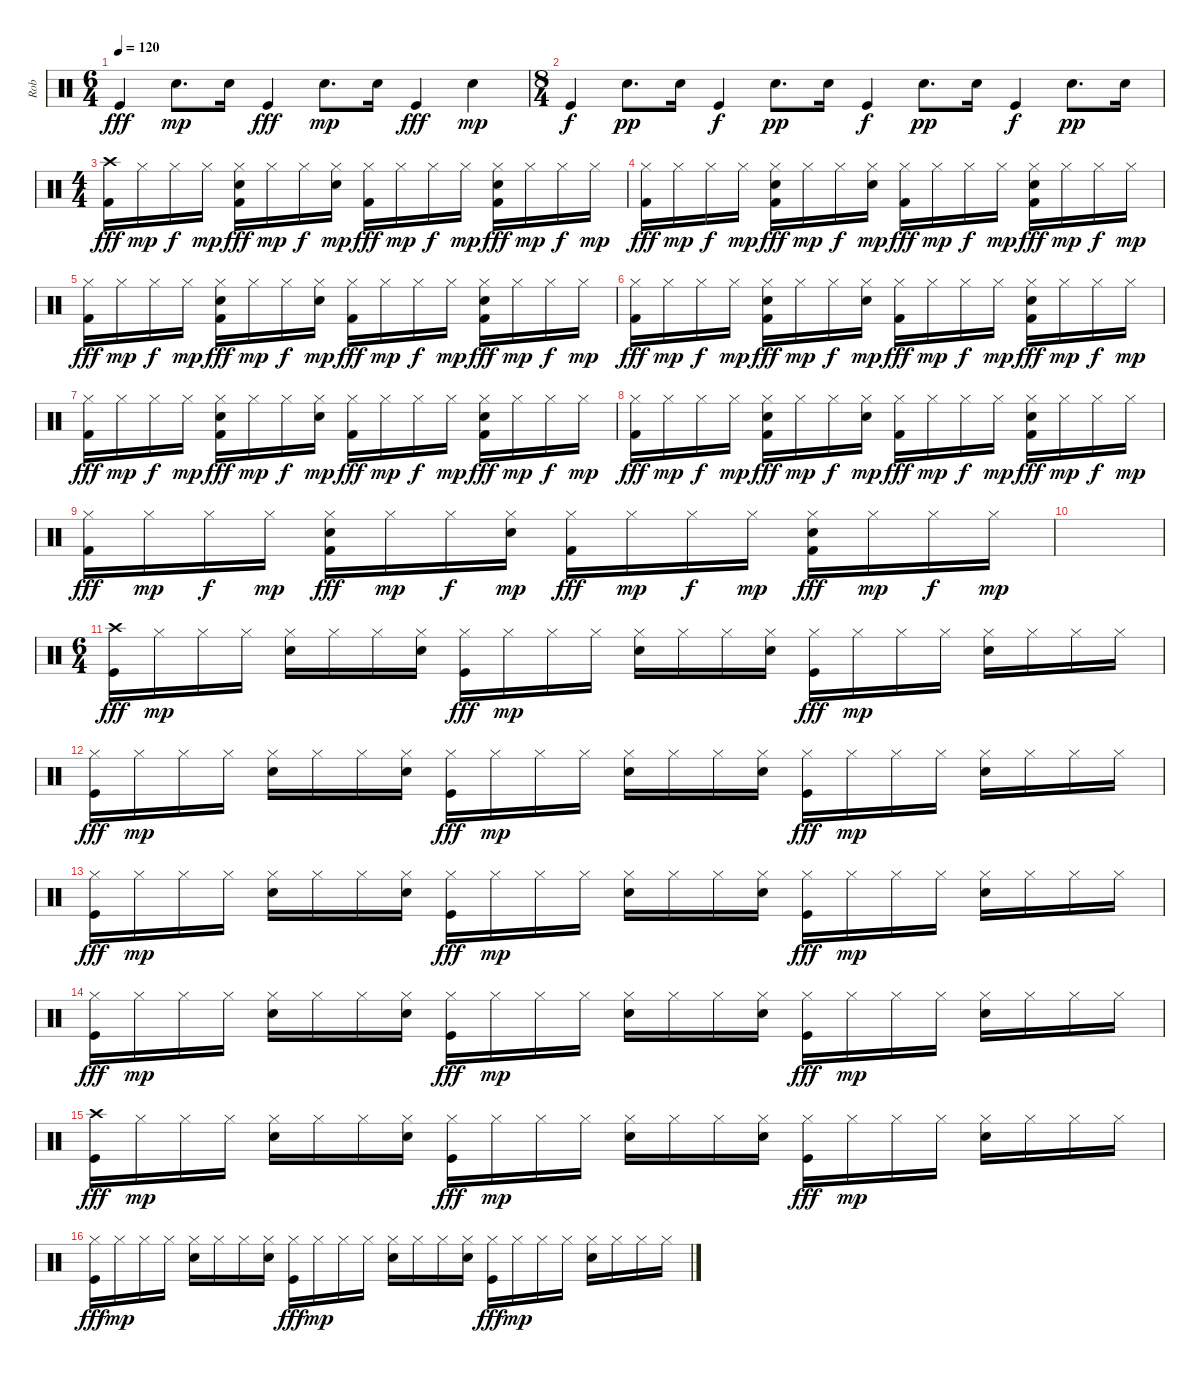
\track ("Rob" "Rob") {instrument percussion}
\staff {score}
\articulation defaults
\ts (6 4)
\tempo 120
\clef neutral
\ks c "Kick (hit)".4{dy fff} "Snare (hit) 2".8{d dy mp} "Snare (hit) 2".16 "Kick (hit)".4{dy fff} "Snare (hit) 2".8{d dy mp} "Snare (hit) 2".16 "Kick (hit)".4{dy fff} "Snare (hit) 2".4{dy mp}
|
\ts (8 4)
"Kick (hit)".4{dy f} "Snare (hit) 2".8{d dy pp} "Snare (hit) 2".16 "Kick (hit)".4{dy f} "Snare (hit) 2".8{d dy pp} "Snare (hit) 2".16 "Kick (hit)".4{dy f} "Snare (hit) 2".8{d dy pp} "Snare (hit) 2".16 "Kick (hit)".4{dy f} "Snare (hit) 2".8{d dy pp} "Snare (hit) 2".16 |
\ts (4 4)
("Crash high (hit)" "Kick (hit) 2").16{dy fff} "Hi-Hat (closed)".16{dy mp} "Hi-Hat (closed)".16{dy f} "Hi-Hat (closed)".16{dy mp} ("Hi-Hat (closed)" "Snare (hit) 2" "Kick (hit) 2").16{dy fff} "Hi-Hat (closed)".16{dy mp} "Hi-Hat (closed)".16{dy f} ("Hi-Hat (closed)" "Snare (hit) 2").16{dy mp} ("Hi-Hat (closed)" "Kick (hit) 2").16{dy fff} "Hi-Hat (closed)".16{dy mp} "Hi-Hat (closed)".16{dy f} "Hi-Hat (closed)".16{dy mp} ("Hi-Hat (closed)" "Snare (hit) 2" "Kick (hit) 2").16{dy fff} "Hi-Hat (closed)".16{dy mp} "Hi-Hat (closed)".16{dy f} "Hi-Hat (closed)".16{dy mp} |
("Hi-Hat (closed)" "Kick (hit) 2").16{dy fff} "Hi-Hat (closed)".16{dy mp} "Hi-Hat (closed)".16{dy f} "Hi-Hat (closed)".16{dy mp} ("Hi-Hat (closed)" "Snare (hit) 2" "Kick (hit) 2").16{dy fff} "Hi-Hat (closed)".16{dy mp} "Hi-Hat (closed)".16{dy f} ("Hi-Hat (closed)" "Snare (hit) 2").16{dy mp} ("Hi-Hat (closed)" "Kick (hit) 2").16{dy fff} "Hi-Hat (closed)".16{dy mp} "Hi-Hat (closed)".16{dy f} "Hi-Hat (closed)".16{dy mp} ("Hi-Hat (closed)" "Snare (hit) 2" "Kick (hit) 2").16{dy fff} "Hi-Hat (closed)".16{dy mp} "Hi-Hat (closed)".16{dy f} "Hi-Hat (closed)".16{dy mp} |
("Hi-Hat (closed)" "Kick (hit) 2").16{dy fff} "Hi-Hat (closed)".16{dy mp} "Hi-Hat (closed)".16{dy f} "Hi-Hat (closed)".16{dy mp} ("Hi-Hat (closed)" "Snare (hit) 2" "Kick (hit) 2").16{dy fff} "Hi-Hat (closed)".16{dy mp} "Hi-Hat (closed)".16{dy f} ("Hi-Hat (closed)" "Snare (hit) 2").16{dy mp} ("Hi-Hat (closed)" "Kick (hit) 2").16{dy fff} "Hi-Hat (closed)".16{dy mp} "Hi-Hat (closed)".16{dy f} "Hi-Hat (closed)".16{dy mp} ("Hi-Hat (closed)" "Snare (hit) 2" "Kick (hit) 2").16{dy fff} "Hi-Hat (closed)".16{dy mp} "Hi-Hat (closed)".16{dy f} "Hi-Hat (closed)".16{dy mp} |
("Hi-Hat (closed)" "Kick (hit) 2").16{dy fff} "Hi-Hat (closed)".16{dy mp} "Hi-Hat (closed)".16{dy f} "Hi-Hat (closed)".16{dy mp} ("Hi-Hat (closed)" "Snare (hit) 2" "Kick (hit) 2").16{dy fff} "Hi-Hat (closed)".16{dy mp} "Hi-Hat (closed)".16{dy f} ("Hi-Hat (closed)" "Snare (hit) 2").16{dy mp} ("Hi-Hat (closed)" "Kick (hit) 2").16{dy fff} "Hi-Hat (closed)".16{dy mp} "Hi-Hat (closed)".16{dy f} "Hi-Hat (closed)".16{dy mp} ("Hi-Hat (closed)" "Snare (hit) 2" "Kick (hit) 2").16{dy fff} "Hi-Hat (closed)".16{dy mp} "Hi-Hat (closed)".16{dy f} "Hi-Hat (closed)".16{dy mp} |
("Hi-Hat (closed)" "Kick (hit) 2").16{dy fff} "Hi-Hat (closed)".16{dy mp} "Hi-Hat (closed)".16{dy f} "Hi-Hat (closed)".16{dy mp} ("Hi-Hat (closed)" "Snare (hit) 2" "Kick (hit) 2").16{dy fff} "Hi-Hat (closed)".16{dy mp} "Hi-Hat (closed)".16{dy f} ("Hi-Hat (closed)" "Snare (hit) 2").16{dy mp} ("Hi-Hat (closed)" "Kick (hit) 2").16{dy fff} "Hi-Hat (closed)".16{dy mp} "Hi-Hat (closed)".16{dy f} "Hi-Hat (closed)".16{dy mp} ("Hi-Hat (closed)" "Snare (hit) 2" "Kick (hit) 2").16{dy fff} "Hi-Hat (closed)".16{dy mp} "Hi-Hat (closed)".16{dy f} "Hi-Hat (closed)".16{dy mp} |
("Hi-Hat (closed)" "Kick (hit) 2").16{dy fff} "Hi-Hat (closed)".16{dy mp} "Hi-Hat (closed)".16{dy f} "Hi-Hat (closed)".16{dy mp} ("Hi-Hat (closed)" "Snare (hit) 2" "Kick (hit) 2").16{dy fff} "Hi-Hat (closed)".16{dy mp} "Hi-Hat (closed)".16{dy f} ("Hi-Hat (closed)" "Snare (hit) 2").16{dy mp} ("Hi-Hat (closed)" "Kick (hit) 2").16{dy fff} "Hi-Hat (closed)".16{dy mp} "Hi-Hat (closed)".16{dy f} "Hi-Hat (closed)".16{dy mp} ("Hi-Hat (closed)" "Snare (hit) 2" "Kick (hit) 2").16{dy fff} "Hi-Hat (closed)".16{dy mp} "Hi-Hat (closed)".16{dy f} "Hi-Hat (closed)".16{dy mp} |
("Hi-Hat (closed)" "Kick (hit) 2").16{dy fff} "Hi-Hat (closed)".16{dy mp} "Hi-Hat (closed)".16{dy f} "Hi-Hat (closed)".16{dy mp} ("Hi-Hat (closed)" "Snare (hit) 2" "Kick (hit) 2").16{dy fff} "Hi-Hat (closed)".16{dy mp} "Hi-Hat (closed)".16{dy f} ("Hi-Hat (closed)" "Snare (hit) 2").16{dy mp} ("Hi-Hat (closed)" "Kick (hit) 2").16{dy fff} "Hi-Hat (closed)".16{dy mp} "Hi-Hat (closed)".16{dy f} "Hi-Hat (closed)".16{dy mp} ("Hi-Hat (closed)" "Snare (hit) 2" "Kick (hit) 2").16{dy fff} "Hi-Hat (closed)".16{dy mp} "Hi-Hat (closed)".16{dy f} "Hi-Hat (closed)".16{dy mp} |
|
\ts (6 4)
("Crash high (hit)" "Kick (hit)").16{dy fff} "Hi-Hat (closed)".16{dy mp} "Hi-Hat (closed)".16 "Hi-Hat (closed)".16 ("Hi-Hat (closed)" "Snare (hit) 2").16 "Hi-Hat (closed)".16 "Hi-Hat (closed)".16 ("Hi-Hat (closed)" "Snare (hit) 2").16 ("Hi-Hat (closed)" "Kick (hit)").16{dy fff} "Hi-Hat (closed)".16{dy mp} "Hi-Hat (closed)".16 "Hi-Hat (closed)".16 ("Hi-Hat (closed)" "Snare (hit) 2").16 "Hi-Hat (closed)".16 "Hi-Hat (closed)".16 ("Hi-Hat (closed)" "Snare (hit) 2").16 ("Hi-Hat (closed)" "Kick (hit)").16{dy fff} "Hi-Hat (closed)".16{dy mp} "Hi-Hat (closed)".16 "Hi-Hat (closed)".16 ("Hi-Hat (closed)" "Snare (hit) 2").16 "Hi-Hat (closed)".16 "Hi-Hat (closed)".16 "Hi-Hat (closed)".16 |
("Hi-Hat (closed)" "Kick (hit)").16{dy fff} "Hi-Hat (closed)".16{dy mp} "Hi-Hat (closed)".16 "Hi-Hat (closed)".16 ("Hi-Hat (closed)" "Snare (hit) 2").16 "Hi-Hat (closed)".16 "Hi-Hat (closed)".16 ("Hi-Hat (closed)" "Snare (hit) 2").16 ("Hi-Hat (closed)" "Kick (hit)").16{dy fff} "Hi-Hat (closed)".16{dy mp} "Hi-Hat (closed)".16 "Hi-Hat (closed)".16 ("Hi-Hat (closed)" "Snare (hit) 2").16 "Hi-Hat (closed)".16 "Hi-Hat (closed)".16 ("Hi-Hat (closed)" "Snare (hit) 2").16 ("Hi-Hat (closed)" "Kick (hit)").16{dy fff} "Hi-Hat (closed)".16{dy mp} "Hi-Hat (closed)".16 "Hi-Hat (closed)".16 ("Hi-Hat (closed)" "Snare (hit) 2").16 "Hi-Hat (closed)".16 "Hi-Hat (closed)".16 "Hi-Hat (closed)".16 |
("Hi-Hat (closed)" "Kick (hit)").16{dy fff} "Hi-Hat (closed)".16{dy mp} "Hi-Hat (closed)".16 "Hi-Hat (closed)".16 ("Hi-Hat (closed)" "Snare (hit) 2").16 "Hi-Hat (closed)".16 "Hi-Hat (closed)".16 ("Hi-Hat (closed)" "Snare (hit) 2").16 ("Hi-Hat (closed)" "Kick (hit)").16{dy fff} "Hi-Hat (closed)".16{dy mp} "Hi-Hat (closed)".16 "Hi-Hat (closed)".16 ("Hi-Hat (closed)" "Snare (hit) 2").16 "Hi-Hat (closed)".16 "Hi-Hat (closed)".16 ("Hi-Hat (closed)" "Snare (hit) 2").16 ("Hi-Hat (closed)" "Kick (hit)").16{dy fff} "Hi-Hat (closed)".16{dy mp} "Hi-Hat (closed)".16 "Hi-Hat (closed)".16 ("Hi-Hat (closed)" "Snare (hit) 2").16 "Hi-Hat (closed)".16 "Hi-Hat (closed)".16 "Hi-Hat (closed)".16 |
("Hi-Hat (closed)" "Kick (hit)").16{dy fff} "Hi-Hat (closed)".16{dy mp} "Hi-Hat (closed)".16 "Hi-Hat (closed)".16 ("Hi-Hat (closed)" "Snare (hit) 2").16 "Hi-Hat (closed)".16 "Hi-Hat (closed)".16 ("Hi-Hat (closed)" "Snare (hit) 2").16 ("Hi-Hat (closed)" "Kick (hit)").16{dy fff} "Hi-Hat (closed)".16{dy mp} "Hi-Hat (closed)".16 "Hi-Hat (closed)".16 ("Hi-Hat (closed)" "Snare (hit) 2").16 "Hi-Hat (closed)".16 "Hi-Hat (closed)".16 ("Hi-Hat (closed)" "Snare (hit) 2").16 ("Hi-Hat (closed)" "Kick (hit)").16{dy fff} "Hi-Hat (closed)".16{dy mp} "Hi-Hat (closed)".16 "Hi-Hat (closed)".16 ("Hi-Hat (closed)" "Snare (hit) 2").16 "Hi-Hat (closed)".16 "Hi-Hat (closed)".16 "Hi-Hat (closed)".16 |
("Crash high (hit)" "Kick (hit)").16{dy fff} "Hi-Hat (closed)".16{dy mp} "Hi-Hat (closed)".16 "Hi-Hat (closed)".16 ("Hi-Hat (closed)" "Snare (hit) 2").16 "Hi-Hat (closed)".16 "Hi-Hat (closed)".16 ("Hi-Hat (closed)" "Snare (hit) 2").16 ("Hi-Hat (closed)" "Kick (hit)").16{dy fff} "Hi-Hat (closed)".16{dy mp} "Hi-Hat (closed)".16 "Hi-Hat (closed)".16 ("Hi-Hat (closed)" "Snare (hit) 2").16 "Hi-Hat (closed)".16 "Hi-Hat (closed)".16 ("Hi-Hat (closed)" "Snare (hit) 2").16 ("Hi-Hat (closed)" "Kick (hit)").16{dy fff} "Hi-Hat (closed)".16{dy mp} "Hi-Hat (closed)".16 "Hi-Hat (closed)".16 ("Hi-Hat (closed)" "Snare (hit) 2").16 "Hi-Hat (closed)".16 "Hi-Hat (closed)".16 "Hi-Hat (closed)".16 |
("Hi-Hat (closed)" "Kick (hit)").16{dy fff} "Hi-Hat (closed)".16{dy mp} "Hi-Hat (closed)".16 "Hi-Hat (closed)".16 ("Hi-Hat (closed)" "Snare (hit) 2").16 "Hi-Hat (closed)".16 "Hi-Hat (closed)".16 ("Hi-Hat (closed)" "Snare (hit) 2").16 ("Hi-Hat (closed)" "Kick (hit)").16{dy fff} "Hi-Hat (closed)".16{dy mp} "Hi-Hat (closed)".16 "Hi-Hat (closed)".16 ("Hi-Hat (closed)" "Snare (hit) 2").16 "Hi-Hat (closed)".16 "Hi-Hat (closed)".16 ("Hi-Hat (closed)" "Snare (hit) 2").16 ("Hi-Hat (closed)" "Kick (hit)").16{dy fff} "Hi-Hat (closed)".16{dy mp} "Hi-Hat (closed)".16 "Hi-Hat (closed)".16 ("Hi-Hat (closed)" "Snare (hit) 2").16 "Hi-Hat (closed)".16 "Hi-Hat (closed)".16 "Hi-Hat (closed)".16
